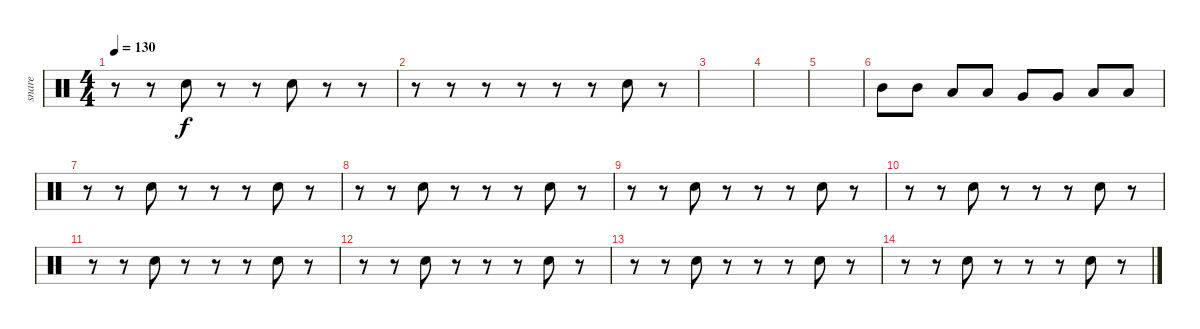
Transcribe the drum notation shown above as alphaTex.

\track ("snare" "snare") {instrument percussion}
\staff {score}
\articulation defaults
\ts (4 4)
\tempo 130
\clef neutral
\ks c
r.8{dy f} r.8 "Snare (hit) 2".8 r.8 r.8 "Snare (hit) 2".8 r.8 r.8 |
r.8 r.8 r.8 r.8 r.8 r.8 "Snare (hit) 2".8 r.8 |
|
|
|
"Mid Tom (hit)".8 "Mid Tom (hit)".8 "Low Tom (hit)".8 "Low Tom (hit)".8 "Very Low Tom (hit)".8 "Very Low Tom (hit)".8 "Low Floor Tom (hit)".8 "Low Floor Tom (hit)".8 |
r.8 r.8 "Snare (hit) 2".8 r.8 r.8 r.8 "Snare (hit) 2".8 r.8 |
r.8 r.8 "Snare (hit) 2".8 r.8 r.8 r.8 "Snare (hit) 2".8 r.8 |
r.8 r.8 "Snare (hit) 2".8 r.8 r.8 r.8 "Snare (hit) 2".8 r.8 |
r.8 r.8 "Snare (hit) 2".8 r.8 r.8 r.8 "Snare (hit) 2".8 r.8 |
r.8 r.8 "Snare (hit) 2".8 r.8 r.8 r.8 "Snare (hit) 2".8 r.8 |
r.8 r.8 "Snare (hit) 2".8 r.8 r.8 r.8 "Snare (hit) 2".8 r.8 |
r.8 r.8 "Snare (hit) 2".8 r.8 r.8 r.8 "Snare (hit) 2".8 r.8 |
r.8 r.8 "Snare (hit) 2".8 r.8 r.8 r.8 "Snare (hit) 2".8 r.8
